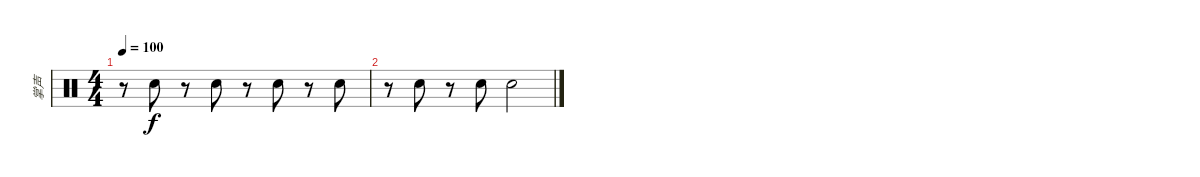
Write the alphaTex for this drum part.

\track ("掌声" "掌声") {instrument percussion}
\staff {score}
\articulation defaults
\ts (4 4)
\tempo 100
\clef neutral
\ks c
r.8{dy f} "Hand Clap (hit)".8 r.8 "Hand Clap (hit)".8 r.8 "Hand Clap (hit)".8 r.8 "Hand Clap (hit)".8 |
r.8 "Hand Clap (hit)".8 r.8 "Hand Clap (hit)".8 "Hand Clap (hit)".2
